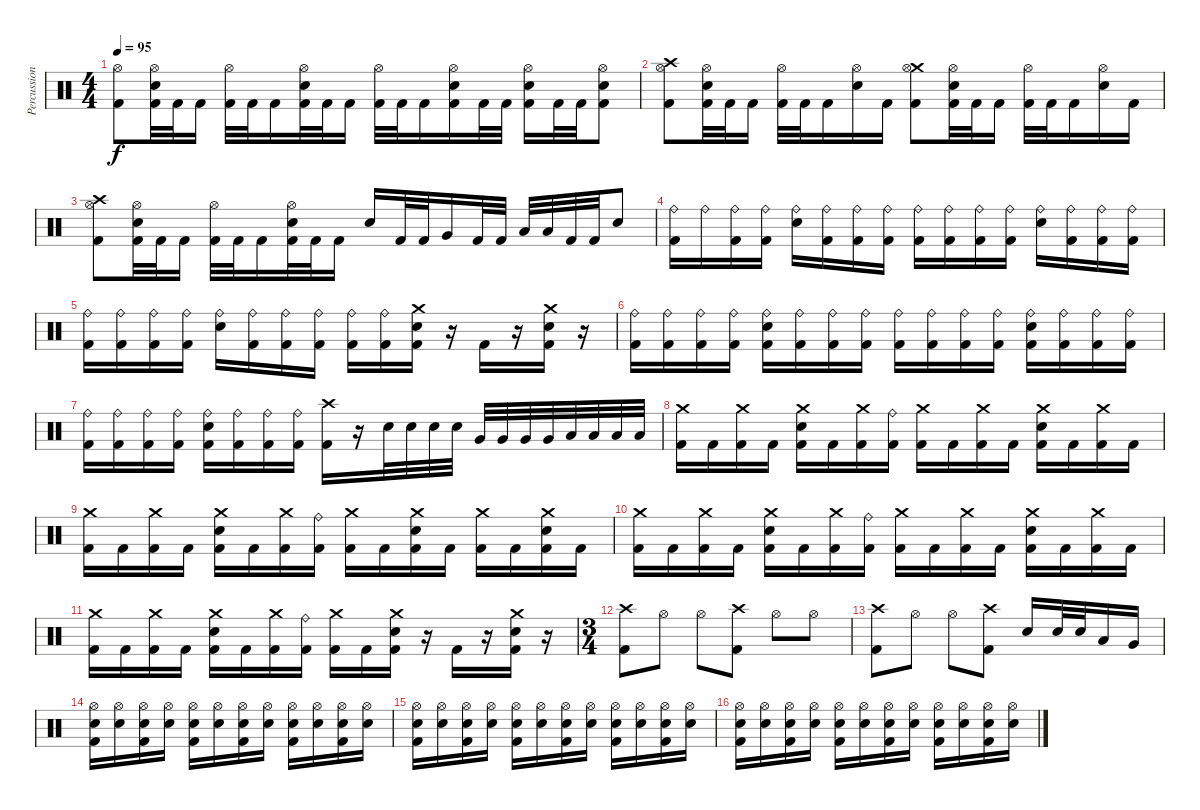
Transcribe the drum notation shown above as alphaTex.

\track ("Percussion" "Percussion") {instrument percussion}
\staff {score}
\articulation defaults
\ts (4 4)
\tempo 95
\clef neutral
\ks c
("Hi-Hat (open)" "Kick (hit) 2").8{dy f} ("Hi-Hat (open)" "Electric Snare (hit)" "Kick (hit) 2").32 "Kick (hit) 2".32 "Kick (hit) 2".16 ("Hi-Hat (open)" "Kick (hit) 2").32 "Kick (hit) 2".32 "Kick (hit) 2".16 ("Hi-Hat (open)" "Electric Snare (hit)" "Kick (hit) 2").32 "Kick (hit) 2".32 "Kick (hit) 2".16 ("Hi-Hat (open)" "Kick (hit) 2").32 "Kick (hit) 2".32 "Kick (hit) 2".16 ("Hi-Hat (open)" "Electric Snare (hit)" "Kick (hit) 2").16 "Kick (hit) 2".32 "Kick (hit) 2".32 ("Hi-Hat (open)" "Electric Snare (hit)" "Kick (hit) 2").16 "Kick (hit) 2".32 "Kick (hit) 2".32 ("Hi-Hat (open)" "Electric Snare (hit)" "Kick (hit) 2").8 |
("Crash high (hit)" "Hi-Hat (open)" "Kick (hit) 2").8 ("Hi-Hat (open)" "Electric Snare (hit)" "Kick (hit) 2").32 "Kick (hit) 2".32 "Kick (hit) 2".16 ("Hi-Hat (open)" "Kick (hit) 2").32 "Kick (hit) 2".32 "Kick (hit) 2".16 ("Hi-Hat (open)" "Electric Snare (hit)").16 "Kick (hit) 2".16 ("Crash medium (hit)" "Hi-Hat (open)" "Kick (hit) 2").8 ("Hi-Hat (open)" "Electric Snare (hit)" "Kick (hit) 2").32 "Kick (hit) 2".32 "Kick (hit) 2".16 ("Hi-Hat (open)" "Kick (hit) 2").32 "Kick (hit) 2".32 "Kick (hit) 2".16 ("Hi-Hat (open)" "Electric Snare (hit)").16 "Kick (hit) 2".16 |
("Crash high (hit)" "Hi-Hat (open)" "Kick (hit) 2").8 ("Hi-Hat (open)" "Electric Snare (hit)" "Kick (hit) 2").32 "Kick (hit) 2".32 "Kick (hit) 2".16 ("Hi-Hat (open)" "Kick (hit) 2").32 "Kick (hit) 2".32 "Kick (hit) 2".16 ("Hi-Hat (open)" "Electric Snare (hit)" "Kick (hit) 2").32 "Kick (hit) 2".32 "Kick (hit) 2".16 "Electric Snare (hit)".16 "Kick (hit) 2".32 "Kick (hit) 2".32 "Very Low Tom (hit)".16 "Kick (hit) 2".32 "Kick (hit) 2".32 "Low Floor Tom (hit)".32 "Low Floor Tom (hit)".32 "Kick (hit) 2".32 "Kick (hit) 2".32 "Electric Snare (hit)".8 |
("Ride (bell)" "Kick (hit) 2").16 "Ride (bell)".16 ("Ride (bell)" "Kick (hit) 2").16 ("Ride (bell)" "Kick (hit) 2").16 ("Ride (bell)" "Electric Snare (hit)").16 ("Ride (bell)" "Kick (hit) 2").16 ("Ride (bell)" "Kick (hit) 2").16 ("Ride (bell)" "Kick (hit) 2").16 ("Ride (bell)" "Kick (hit) 2").16 ("Ride (bell)" "Kick (hit) 2").16 ("Ride (bell)" "Kick (hit) 2").16 ("Ride (bell)" "Kick (hit) 2").16 ("Ride (bell)" "Electric Snare (hit)").16 ("Ride (bell)" "Kick (hit) 2").16 ("Ride (bell)" "Kick (hit) 2").16 ("Ride (bell)" "Kick (hit) 2").16 |
("Ride (bell)" "Kick (hit) 2").16 ("Ride (bell)" "Kick (hit) 2").16 ("Ride (bell)" "Kick (hit) 2").16 ("Ride (bell)" "Kick (hit) 2").16 ("Ride (bell)" "Electric Snare (hit)").16 ("Ride (bell)" "Kick (hit) 2").16 ("Ride (bell)" "Kick (hit) 2").16 ("Ride (bell)" "Kick (hit) 2").16 ("Ride (bell)" "Kick (hit) 2").16 ("Ride (bell)" "Kick (hit) 2").16 ("Crash medium (hit)" "Electric Snare (hit)" "Kick (hit) 2").16 r.16 "Kick (hit) 2".16 r.16 ("Crash medium (hit)" "Electric Snare (hit)" "Kick (hit) 2").16 r.16 |
("Ride (bell)" "Kick (hit) 2").16 ("Ride (bell)" "Kick (hit) 2").16 ("Ride (bell)" "Kick (hit) 2").16 ("Ride (bell)" "Kick (hit) 2").16 ("Ride (bell)" "Electric Snare (hit)" "Kick (hit) 2").16 ("Ride (bell)" "Kick (hit) 2").16 ("Ride (bell)" "Kick (hit) 2").16 ("Ride (bell)" "Kick (hit) 2").16 ("Ride (bell)" "Kick (hit) 2").16 ("Ride (bell)" "Kick (hit) 2").16 ("Ride (bell)" "Kick (hit) 2").16 ("Ride (bell)" "Kick (hit) 2").16 ("Ride (bell)" "Electric Snare (hit)" "Kick (hit) 2").16 ("Ride (bell)" "Kick (hit) 2").16 ("Ride (bell)" "Kick (hit) 2").16 ("Ride (bell)" "Kick (hit) 2").16 |
("Ride (bell)" "Kick (hit) 2").16 ("Ride (bell)" "Kick (hit) 2").16 ("Ride (bell)" "Kick (hit) 2").16 ("Ride (bell)" "Kick (hit) 2").16 ("Ride (bell)" "Electric Snare (hit)" "Kick (hit) 2").16 ("Ride (bell)" "Kick (hit) 2").16 ("Ride (bell)" "Kick (hit) 2").16 ("Ride (bell)" "Kick (hit) 2").16 ("Crash high (hit)" "Kick (hit) 2").16 r.16 "Electric Snare (hit)".32 "Electric Snare (hit)".32 "Electric Snare (hit)".32 "Electric Snare (hit)".32 "Very Low Tom (hit)".32 "Very Low Tom (hit)".32 "Very Low Tom (hit)".32 "Very Low Tom (hit)".32 "Low Floor Tom (hit)".32 "Low Floor Tom (hit)".32 "Low Floor Tom (hit)".32 "Low Floor Tom (hit)".32 |
("Crash medium (hit)" "Kick (hit) 2").16 "Kick (hit) 2".16 ("Crash medium (hit)" "Kick (hit) 2").16 "Kick (hit) 2".16 ("Crash medium (hit)" "Electric Snare (hit)" "Kick (hit) 2").16 "Kick (hit) 2".16 ("Crash medium (hit)" "Kick (hit) 2").16 ("Ride (bell)" "Kick (hit) 2").16 ("Crash medium (hit)" "Kick (hit) 2").16 "Kick (hit) 2".16 ("Crash medium (hit)" "Kick (hit) 2").16 "Kick (hit) 2".16 ("Crash medium (hit)" "Electric Snare (hit)" "Kick (hit) 2").16 "Kick (hit) 2".16 ("Crash medium (hit)" "Kick (hit) 2").16 "Kick (hit) 2".16 |
("Crash medium (hit)" "Kick (hit) 2").16 "Kick (hit) 2".16 ("Crash medium (hit)" "Kick (hit) 2").16 "Kick (hit) 2".16 ("Crash medium (hit)" "Electric Snare (hit)" "Kick (hit) 2").16 "Kick (hit) 2".16 ("Crash medium (hit)" "Kick (hit) 2").16 ("Ride (bell)" "Kick (hit) 2").16 ("Crash medium (hit)" "Kick (hit) 2").16 "Kick (hit) 2".16 ("Crash medium (hit)" "Electric Snare (hit)" "Kick (hit) 2").16 "Kick (hit) 2".16 ("Crash medium (hit)" "Kick (hit) 2").16 "Kick (hit) 2".16 ("Crash medium (hit)" "Electric Snare (hit)" "Kick (hit) 2").16 "Kick (hit) 2".16 |
("Crash medium (hit)" "Kick (hit) 2").16 "Kick (hit) 2".16 ("Crash medium (hit)" "Kick (hit) 2").16 "Kick (hit) 2".16 ("Crash medium (hit)" "Electric Snare (hit)" "Kick (hit) 2").16 "Kick (hit) 2".16 ("Crash medium (hit)" "Kick (hit) 2").16 ("Ride (bell)" "Kick (hit) 2").16 ("Crash medium (hit)" "Kick (hit) 2").16 "Kick (hit) 2".16 ("Crash medium (hit)" "Kick (hit) 2").16 "Kick (hit) 2".16 ("Crash medium (hit)" "Electric Snare (hit)" "Kick (hit) 2").16 "Kick (hit) 2".16 ("Crash medium (hit)" "Kick (hit) 2").16 "Kick (hit) 2".16 |
("Crash medium (hit)" "Kick (hit) 2").16 "Kick (hit) 2".16 ("Crash medium (hit)" "Kick (hit) 2").16 "Kick (hit) 2".16 ("Crash medium (hit)" "Electric Snare (hit)" "Kick (hit) 2").16 "Kick (hit) 2".16 ("Crash medium (hit)" "Kick (hit) 2").16 ("Ride (bell)" "Kick (hit) 2").16 ("Crash medium (hit)" "Kick (hit) 2").16 "Kick (hit) 2".16 ("Crash medium (hit)" "Electric Snare (hit)" "Kick (hit) 2").16 r.16 "Kick (hit) 2".16 r.16 ("Crash medium (hit)" "Electric Snare (hit)" "Kick (hit) 2").16 r.16 |
\ts (3 4)
("Crash high (hit)" "Kick (hit) 2").8 "Hi-Hat (open)".8 "Hi-Hat (open)".8 ("Crash high (hit)" "Kick (hit) 2").8 "Hi-Hat (open)".8 "Hi-Hat (open)".8 |
("Crash high (hit)" "Kick (hit) 2").8 "Hi-Hat (open)".8 "Hi-Hat (open)".8 ("Crash high (hit)" "Kick (hit) 2").8 "Electric Snare (hit)".16 "Electric Snare (hit)".32 "Electric Snare (hit)".32 "Low Tom (hit)".16 "Very Low Tom (hit)".16 |
("Hi-Hat (open)" "Electric Snare (hit)" "Kick (hit) 2").16 ("Hi-Hat (open)" "Electric Snare (hit)").16 ("Hi-Hat (open)" "Electric Snare (hit)" "Kick (hit) 2").16 ("Hi-Hat (open)" "Electric Snare (hit)").16 ("Hi-Hat (open)" "Electric Snare (hit)" "Kick (hit) 2").16 ("Hi-Hat (open)" "Electric Snare (hit)").16 ("Hi-Hat (open)" "Electric Snare (hit)" "Kick (hit) 2").16 ("Hi-Hat (open)" "Electric Snare (hit)").16 ("Hi-Hat (open)" "Electric Snare (hit)" "Kick (hit) 2").16 ("Hi-Hat (open)" "Electric Snare (hit)").16 ("Hi-Hat (open)" "Electric Snare (hit)" "Kick (hit) 2").16 ("Hi-Hat (open)" "Electric Snare (hit)").16 |
("Hi-Hat (open)" "Electric Snare (hit)" "Kick (hit) 2").16 ("Hi-Hat (open)" "Electric Snare (hit)").16 ("Hi-Hat (open)" "Electric Snare (hit)" "Kick (hit) 2").16 ("Hi-Hat (open)" "Electric Snare (hit)").16 ("Hi-Hat (open)" "Electric Snare (hit)" "Kick (hit) 2").16 ("Hi-Hat (open)" "Electric Snare (hit)").16 ("Hi-Hat (open)" "Electric Snare (hit)" "Kick (hit) 2").16 ("Hi-Hat (open)" "Electric Snare (hit)").16 ("Hi-Hat (open)" "Electric Snare (hit)" "Kick (hit) 2").16 ("Hi-Hat (open)" "Electric Snare (hit)").16 ("Hi-Hat (open)" "Electric Snare (hit)" "Kick (hit) 2").16 ("Hi-Hat (open)" "Electric Snare (hit)").16 |
("Hi-Hat (open)" "Electric Snare (hit)" "Kick (hit) 2").16 ("Hi-Hat (open)" "Electric Snare (hit)").16 ("Hi-Hat (open)" "Electric Snare (hit)" "Kick (hit) 2").16 ("Hi-Hat (open)" "Electric Snare (hit)").16 ("Hi-Hat (open)" "Electric Snare (hit)" "Kick (hit) 2").16 ("Hi-Hat (open)" "Electric Snare (hit)").16 ("Hi-Hat (open)" "Electric Snare (hit)" "Kick (hit) 2").16 ("Hi-Hat (open)" "Electric Snare (hit)").16 ("Hi-Hat (open)" "Electric Snare (hit)" "Kick (hit) 2").16 ("Hi-Hat (open)" "Electric Snare (hit)").16 ("Hi-Hat (open)" "Electric Snare (hit)" "Kick (hit) 2").16 ("Hi-Hat (open)" "Electric Snare (hit)").16
